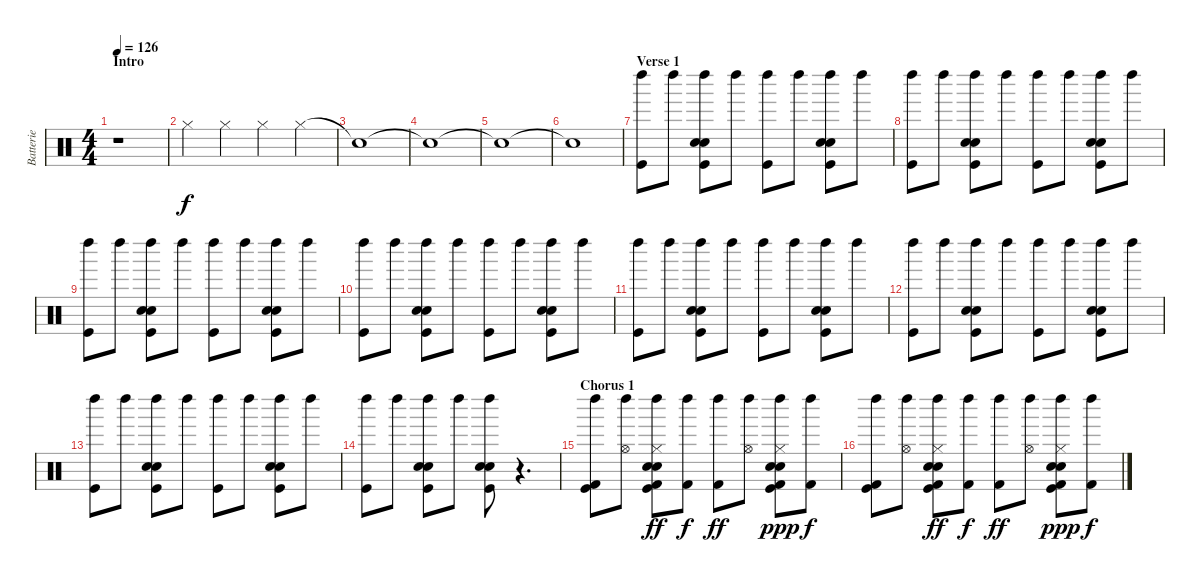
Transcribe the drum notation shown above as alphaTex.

\track ("Batterie" "Batterie") {instrument percussion}
\staff {score}
\articulation defaults
\ts (4 4)
\section ("" "Intro")
\tempo 126
\clef neutral
\ks c
r.1{dy f} |
"Hi-Hat (closed)".4 "Hi-Hat (closed)".4 "Hi-Hat (closed)".4 "Hi-Hat (closed)".4 |
"Snare (hit)"{t}.1 |
"Snare (hit)"{t}.1 |
"Snare (hit)"{t}.1 |
"Snare (hit)"{t}.1 |
\section ("" "Verse 1")
("Left Maraca (hit)" "Kick (hit)").8 "Left Maraca (hit)".8 ("Left Maraca (hit)" "Electric Snare (hit)" "Hand Clap (hit)" "Kick (hit)").8 "Left Maraca (hit)".8 ("Left Maraca (hit)" "Kick (hit)").8 "Left Maraca (hit)".8 ("Left Maraca (hit)" "Electric Snare (hit)" "Hand Clap (hit)" "Kick (hit)").8 "Left Maraca (hit)".8 |
("Left Maraca (hit)" "Kick (hit)").8 "Left Maraca (hit)".8 ("Left Maraca (hit)" "Electric Snare (hit)" "Hand Clap (hit)" "Kick (hit)").8 "Left Maraca (hit)".8 ("Left Maraca (hit)" "Kick (hit)").8 "Left Maraca (hit)".8 ("Left Maraca (hit)" "Electric Snare (hit)" "Hand Clap (hit)" "Kick (hit)").8 "Left Maraca (hit)".8 |
("Left Maraca (hit)" "Kick (hit)").8 "Left Maraca (hit)".8 ("Left Maraca (hit)" "Electric Snare (hit)" "Hand Clap (hit)" "Kick (hit)").8 "Left Maraca (hit)".8 ("Left Maraca (hit)" "Kick (hit)").8 "Left Maraca (hit)".8 ("Left Maraca (hit)" "Electric Snare (hit)" "Hand Clap (hit)" "Kick (hit)").8 "Left Maraca (hit)".8 |
("Left Maraca (hit)" "Kick (hit)").8 "Left Maraca (hit)".8 ("Left Maraca (hit)" "Electric Snare (hit)" "Hand Clap (hit)" "Kick (hit)").8 "Left Maraca (hit)".8 ("Left Maraca (hit)" "Kick (hit)").8 "Left Maraca (hit)".8 ("Left Maraca (hit)" "Electric Snare (hit)" "Hand Clap (hit)" "Kick (hit)").8 "Left Maraca (hit)".8 |
("Left Maraca (hit)" "Kick (hit)").8 "Left Maraca (hit)".8 ("Left Maraca (hit)" "Electric Snare (hit)" "Hand Clap (hit)" "Kick (hit)").8 "Left Maraca (hit)".8 ("Left Maraca (hit)" "Kick (hit)").8 "Left Maraca (hit)".8 ("Left Maraca (hit)" "Electric Snare (hit)" "Hand Clap (hit)" "Kick (hit)").8 "Left Maraca (hit)".8 |
("Left Maraca (hit)" "Kick (hit)").8 "Left Maraca (hit)".8 ("Left Maraca (hit)" "Electric Snare (hit)" "Hand Clap (hit)" "Kick (hit)").8 "Left Maraca (hit)".8 ("Left Maraca (hit)" "Kick (hit)").8 "Left Maraca (hit)".8 ("Left Maraca (hit)" "Electric Snare (hit)" "Hand Clap (hit)" "Kick (hit)").8 "Left Maraca (hit)".8 |
("Left Maraca (hit)" "Kick (hit)").8 "Left Maraca (hit)".8 ("Left Maraca (hit)" "Electric Snare (hit)" "Hand Clap (hit)" "Kick (hit)").8 "Left Maraca (hit)".8 ("Left Maraca (hit)" "Kick (hit)").8 "Left Maraca (hit)".8 ("Left Maraca (hit)" "Electric Snare (hit)" "Hand Clap (hit)" "Kick (hit)").8 "Left Maraca (hit)".8 |
("Left Maraca (hit)" "Kick (hit)").8 "Left Maraca (hit)".8 ("Left Maraca (hit)" "Electric Snare (hit)" "Hand Clap (hit)" "Kick (hit)").8 "Left Maraca (hit)".8 ("Left Maraca (hit)" "Electric Snare (hit)" "Hand Clap (hit)" "Kick (hit)").8 r.4{d} |
\section ("" "Chorus 1")
("Left Maraca (hit)" "Kick (hit)" "Kick (hit) 2").8 ("Left Maraca (hit)" "Hi-Hat (open)").8 ("Left Maraca (hit)" "Hi-Hat (closed)" "Electric Snare (hit)" "Hand Clap (hit)" "Kick (hit)" "Kick (hit) 2").8{dy ff} ("Left Maraca (hit)" "Kick (hit) 2").8{dy f} ("Left Maraca (hit)" "Kick (hit) 2").8{dy ff} ("Left Maraca (hit)" "Hi-Hat (open)").8 ("Left Maraca (hit)" "Hi-Hat (closed)" "Electric Snare (hit)" "Hand Clap (hit)" "Kick (hit)" "Kick (hit) 2").8{dy ppp} ("Left Maraca (hit)" "Kick (hit) 2").8{dy f} |
("Left Maraca (hit)" "Kick (hit)" "Kick (hit) 2").8 ("Left Maraca (hit)" "Hi-Hat (open)").8 ("Left Maraca (hit)" "Hi-Hat (closed)" "Electric Snare (hit)" "Hand Clap (hit)" "Kick (hit)" "Kick (hit) 2").8{dy ff} ("Left Maraca (hit)" "Kick (hit) 2").8{dy f} ("Left Maraca (hit)" "Kick (hit) 2").8{dy ff} ("Left Maraca (hit)" "Hi-Hat (open)").8 ("Left Maraca (hit)" "Hi-Hat (closed)" "Electric Snare (hit)" "Hand Clap (hit)" "Kick (hit)" "Kick (hit) 2").8{dy ppp} ("Left Maraca (hit)" "Kick (hit) 2").8{dy f}
